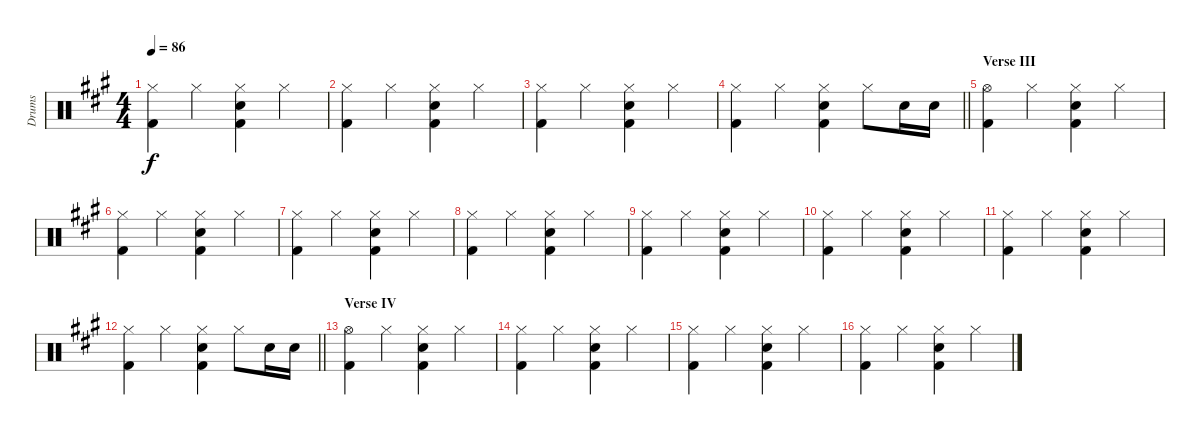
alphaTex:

\track ("Drums" "Drums") {instrument percussion}
\staff {score}
\articulation defaults
\ts (4 4)
\tempo 86
\clef neutral
\ks a
("Hi-Hat (closed)" "Kick (hit) 2").4{dy f} "Hi-Hat (closed)".4 ("Hi-Hat (closed)" "Electric Snare (hit)" "Kick (hit) 2").4 "Hi-Hat (closed)".4 |
("Hi-Hat (closed)" "Kick (hit) 2").4 "Hi-Hat (closed)".4 ("Hi-Hat (closed)" "Electric Snare (hit)" "Kick (hit) 2").4 "Hi-Hat (closed)".4 |
("Hi-Hat (closed)" "Kick (hit) 2").4 "Hi-Hat (closed)".4 ("Hi-Hat (closed)" "Electric Snare (hit)" "Kick (hit) 2").4 "Hi-Hat (closed)".4 |
\barLineRight lightlight
("Hi-Hat (closed)" "Kick (hit) 2").4 "Hi-Hat (closed)".4 ("Hi-Hat (closed)" "Electric Snare (hit)" "Kick (hit) 2").4 "Hi-Hat (closed)".8 "Electric Snare (hit)".16 "Electric Snare (hit)".16 |
\section ("" "Verse III")
("Hi-Hat (open)" "Kick (hit) 2").4 "Hi-Hat (closed)".4 ("Hi-Hat (closed)" "Electric Snare (hit)" "Kick (hit) 2").4 "Hi-Hat (closed)".4 |
("Hi-Hat (closed)" "Kick (hit) 2").4 "Hi-Hat (closed)".4 ("Hi-Hat (closed)" "Electric Snare (hit)" "Kick (hit) 2").4 "Hi-Hat (closed)".4 |
("Hi-Hat (closed)" "Kick (hit) 2").4 "Hi-Hat (closed)".4 ("Hi-Hat (closed)" "Electric Snare (hit)" "Kick (hit) 2").4 "Hi-Hat (closed)".4 |
("Hi-Hat (closed)" "Kick (hit) 2").4 "Hi-Hat (closed)".4 ("Hi-Hat (closed)" "Electric Snare (hit)" "Kick (hit) 2").4 "Hi-Hat (closed)".4 |
("Hi-Hat (closed)" "Kick (hit) 2").4 "Hi-Hat (closed)".4 ("Hi-Hat (closed)" "Electric Snare (hit)" "Kick (hit) 2").4 "Hi-Hat (closed)".4 |
("Hi-Hat (closed)" "Kick (hit) 2").4 "Hi-Hat (closed)".4 ("Hi-Hat (closed)" "Electric Snare (hit)" "Kick (hit) 2").4 "Hi-Hat (closed)".4 |
("Hi-Hat (closed)" "Kick (hit) 2").4 "Hi-Hat (closed)".4 ("Hi-Hat (closed)" "Electric Snare (hit)" "Kick (hit) 2").4 "Hi-Hat (closed)".4 |
\barLineRight lightlight
("Hi-Hat (closed)" "Kick (hit) 2").4 "Hi-Hat (closed)".4 ("Hi-Hat (closed)" "Electric Snare (hit)" "Kick (hit) 2").4 "Hi-Hat (closed)".8 "Electric Snare (hit)".16 "Electric Snare (hit)".16 |
\section ("" "Verse IV")
("Hi-Hat (open)" "Kick (hit) 2").4 "Hi-Hat (closed)".4 ("Hi-Hat (closed)" "Electric Snare (hit)" "Kick (hit) 2").4 "Hi-Hat (closed)".4 |
("Hi-Hat (closed)" "Kick (hit) 2").4 "Hi-Hat (closed)".4 ("Hi-Hat (closed)" "Electric Snare (hit)" "Kick (hit) 2").4 "Hi-Hat (closed)".4 |
("Hi-Hat (closed)" "Kick (hit) 2").4 "Hi-Hat (closed)".4 ("Hi-Hat (closed)" "Electric Snare (hit)" "Kick (hit) 2").4 "Hi-Hat (closed)".4 |
("Hi-Hat (closed)" "Kick (hit) 2").4 "Hi-Hat (closed)".4 ("Hi-Hat (closed)" "Electric Snare (hit)" "Kick (hit) 2").4 "Hi-Hat (closed)".4
